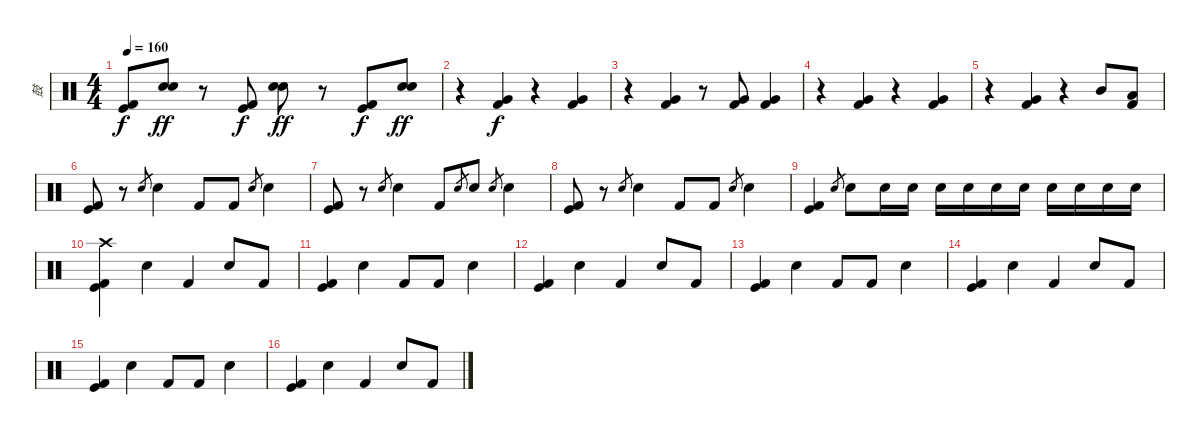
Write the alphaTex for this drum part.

\track ("鼓" "鼓") {instrument percussion}
\staff {score}
\articulation defaults
\ts (4 4)
\tempo 160
\clef neutral
\ks c
("Kick (hit) 2" "Kick (hit)").8{dy f} ("Electric Snare (hit)" "Snare (hit) 2").8{dy ff} r.8 ("Kick (hit)" "Kick (hit) 2").8{dy f} ("Electric Snare (hit)" "Snare (hit) 2").8{dy ff} r.8 ("Kick (hit)" "Kick (hit) 2").8{dy f} ("Electric Snare (hit)" "Snare (hit) 2").8{dy ff} |
r.4 ("Kick (hit) 2" "Very Low Tom (hit)").4{dy f} r.4 ("Kick (hit) 2" "Very Low Tom (hit)").4 |
r.4 ("Kick (hit) 2" "Very Low Tom (hit)").4 r.8 ("Kick (hit) 2" "Very Low Tom (hit)").8 ("Kick (hit) 2" "Very Low Tom (hit)").4 |
r.4 ("Kick (hit) 2" "Very Low Tom (hit)").4 r.4 ("Kick (hit) 2" "Very Low Tom (hit)").4 |
r.4 ("Kick (hit) 2" "Very Low Tom (hit)").4 r.4 "Mid Tom (hit)".8 ("Low Tom (hit)" "Kick (hit) 2").8 |
("Kick (hit)" "Kick (hit) 2").8 r.8 "Snare (hit) 2"{h}.8{gr} "Snare (hit) 2".4 "Kick (hit) 2".8 "Kick (hit) 2".8 "Snare (hit) 2"{h}.8{gr} "Snare (hit) 2".4 |
("Kick (hit)" "Kick (hit) 2").8 r.8 "Snare (hit) 2"{h}.8{gr} "Snare (hit) 2".4 "Kick (hit) 2".8 "Snare (hit) 2".8{gr} "Snare (hit) 2".8 "Snare (hit) 2"{h}.8{gr} "Snare (hit) 2".4 |
("Kick (hit)" "Kick (hit) 2").8 r.8 "Snare (hit) 2"{h}.8{gr} "Snare (hit) 2".4 "Kick (hit) 2".8 "Kick (hit) 2".8 "Snare (hit) 2"{h}.8{gr} "Snare (hit) 2".4 |
("Kick (hit) 2" "Kick (hit)").4 "Snare (hit) 2".8{gr} "Snare (hit) 2".8 "Snare (hit) 2".16 "Snare (hit) 2".16 "Snare (hit) 2".16 "Snare (hit) 2".16 "Snare (hit) 2".16 "Snare (hit) 2".16 "Snare (hit) 2".16 "Snare (hit) 2".16 "Snare (hit) 2".16 "Snare (hit) 2".16 |
("Crash high (hit)" "Kick (hit)" "Kick (hit) 2").4 "Snare (hit) 2".4 "Kick (hit) 2".4 "Snare (hit) 2".8 "Kick (hit) 2".8 |
("Kick (hit) 2" "Kick (hit)").4 "Snare (hit) 2".4 "Kick (hit) 2".8 "Kick (hit) 2".8 "Snare (hit) 2".4 |
("Kick (hit)" "Kick (hit) 2").4 "Snare (hit) 2".4 "Kick (hit) 2".4 "Snare (hit) 2".8 "Kick (hit) 2".8 |
("Kick (hit) 2" "Kick (hit)").4 "Snare (hit) 2".4 "Kick (hit) 2".8 "Kick (hit) 2".8 "Snare (hit) 2".4 |
("Kick (hit)" "Kick (hit) 2").4 "Snare (hit) 2".4 "Kick (hit) 2".4 "Snare (hit) 2".8 "Kick (hit) 2".8 |
("Kick (hit) 2" "Kick (hit)").4 "Snare (hit) 2".4 "Kick (hit) 2".8 "Kick (hit) 2".8 "Snare (hit) 2".4 |
("Kick (hit)" "Kick (hit) 2").4 "Snare (hit) 2".4 "Kick (hit) 2".4 "Snare (hit) 2".8 "Kick (hit) 2".8
